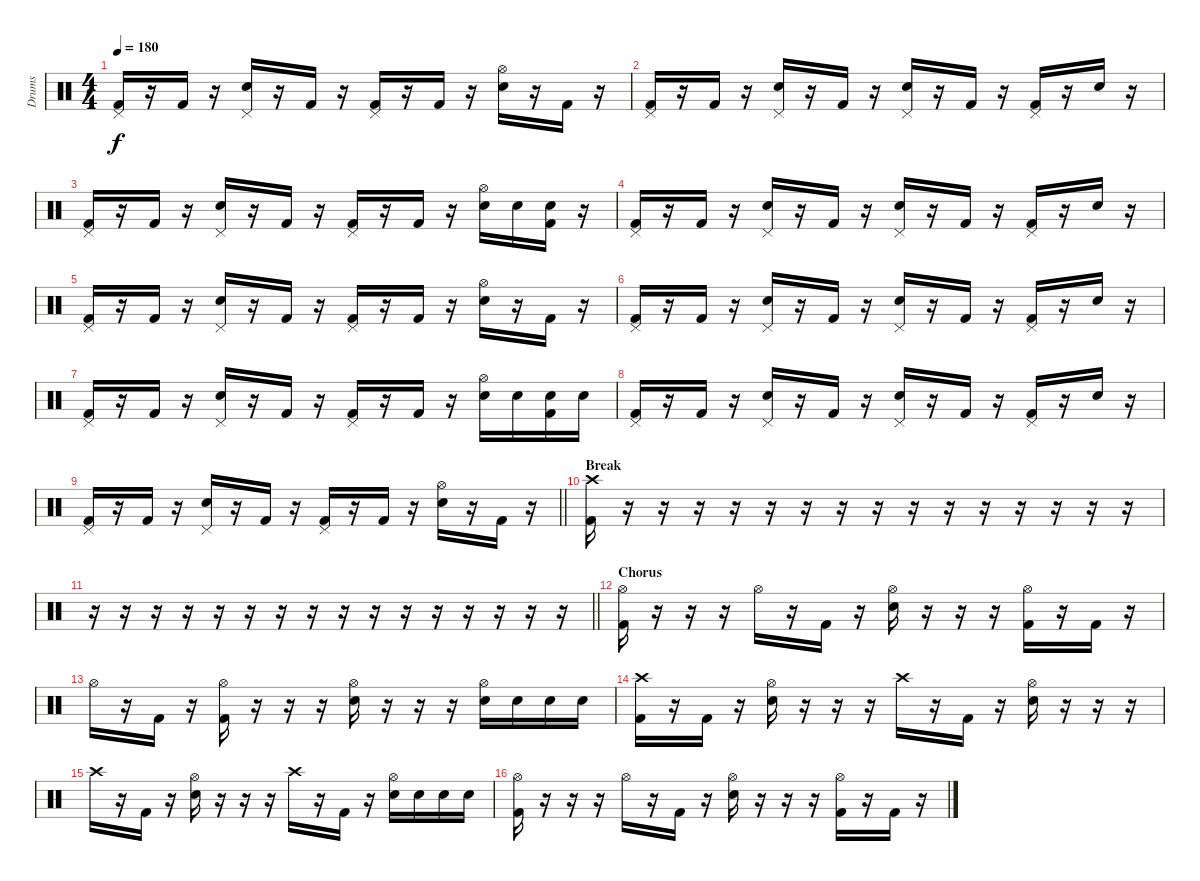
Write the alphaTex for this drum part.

\track ("Drums" "Drums") {instrument percussion}
\staff {score}
\articulation defaults
\ts (4 4)
\tempo 180
\clef neutral
\ks c
("Pedal Hi-Hat (hit)" "Kick (hit) 2").16{dy f} r.16 "Kick (hit) 2".16 r.16 ("Pedal Hi-Hat (hit)" "Electric Snare (hit)").16 r.16 "Kick (hit) 2".16 r.16 ("Pedal Hi-Hat (hit)" "Kick (hit) 2").16 r.16 "Kick (hit) 2".16 r.16 ("Hi-Hat (open)" "Electric Snare (hit)").16 r.16 "Kick (hit) 2".16 r.16 |
("Pedal Hi-Hat (hit)" "Kick (hit) 2").16 r.16 "Kick (hit) 2".16 r.16 ("Pedal Hi-Hat (hit)" "Electric Snare (hit)").16 r.16 "Kick (hit) 2".16 r.16 ("Pedal Hi-Hat (hit)" "Electric Snare (hit)").16 r.16 "Kick (hit) 2".16 r.16 ("Pedal Hi-Hat (hit)" "Kick (hit) 2").16 r.16 "Electric Snare (hit)".16 r.16 |
("Pedal Hi-Hat (hit)" "Kick (hit) 2").16 r.16 "Kick (hit) 2".16 r.16 ("Pedal Hi-Hat (hit)" "Electric Snare (hit)").16 r.16 "Kick (hit) 2".16 r.16 ("Pedal Hi-Hat (hit)" "Kick (hit) 2").16 r.16 "Kick (hit) 2".16 r.16 ("Hi-Hat (open)" "Electric Snare (hit)").16 "Electric Snare (hit)".16 ("Electric Snare (hit)" "Kick (hit) 2").16 r.16 |
("Pedal Hi-Hat (hit)" "Kick (hit) 2").16 r.16 "Kick (hit) 2".16 r.16 ("Pedal Hi-Hat (hit)" "Electric Snare (hit)").16 r.16 "Kick (hit) 2".16 r.16 ("Pedal Hi-Hat (hit)" "Electric Snare (hit)").16 r.16 "Kick (hit) 2".16 r.16 ("Pedal Hi-Hat (hit)" "Kick (hit) 2").16 r.16 "Electric Snare (hit)".16 r.16 |
("Pedal Hi-Hat (hit)" "Kick (hit) 2").16 r.16 "Kick (hit) 2".16 r.16 ("Pedal Hi-Hat (hit)" "Electric Snare (hit)").16 r.16 "Kick (hit) 2".16 r.16 ("Pedal Hi-Hat (hit)" "Kick (hit) 2").16 r.16 "Kick (hit) 2".16 r.16 ("Hi-Hat (open)" "Electric Snare (hit)").16 r.16 "Kick (hit) 2".16 r.16 |
("Pedal Hi-Hat (hit)" "Kick (hit) 2").16 r.16 "Kick (hit) 2".16 r.16 ("Pedal Hi-Hat (hit)" "Electric Snare (hit)").16 r.16 "Kick (hit) 2".16 r.16 ("Pedal Hi-Hat (hit)" "Electric Snare (hit)").16 r.16 "Kick (hit) 2".16 r.16 ("Pedal Hi-Hat (hit)" "Kick (hit) 2").16 r.16 "Electric Snare (hit)".16 r.16 |
("Pedal Hi-Hat (hit)" "Kick (hit) 2").16 r.16 "Kick (hit) 2".16 r.16 ("Pedal Hi-Hat (hit)" "Electric Snare (hit)").16 r.16 "Kick (hit) 2".16 r.16 ("Pedal Hi-Hat (hit)" "Kick (hit) 2").16 r.16 "Kick (hit) 2".16 r.16 ("Hi-Hat (open)" "Electric Snare (hit)").16 "Electric Snare (hit)".16 ("Electric Snare (hit)" "Kick (hit) 2").16 "Electric Snare (hit)".16 |
("Pedal Hi-Hat (hit)" "Kick (hit) 2").16 r.16 "Kick (hit) 2".16 r.16 ("Pedal Hi-Hat (hit)" "Electric Snare (hit)").16 r.16 "Kick (hit) 2".16 r.16 ("Pedal Hi-Hat (hit)" "Electric Snare (hit)").16 r.16 "Kick (hit) 2".16 r.16 ("Pedal Hi-Hat (hit)" "Kick (hit) 2").16 r.16 "Electric Snare (hit)".16 r.16 |
\barLineRight lightlight
("Pedal Hi-Hat (hit)" "Kick (hit) 2").16 r.16 "Kick (hit) 2".16 r.16 ("Pedal Hi-Hat (hit)" "Electric Snare (hit)").16 r.16 "Kick (hit) 2".16 r.16 ("Pedal Hi-Hat (hit)" "Kick (hit) 2").16 r.16 "Kick (hit) 2".16 r.16 ("Hi-Hat (open)" "Electric Snare (hit)").16 r.16 "Kick (hit) 2".16 r.16 |
\section ("" "Break")
("Crash high (hit)" "Kick (hit) 2").16 r.16 r.16 r.16 r.16 r.16 r.16 r.16 r.16 r.16 r.16 r.16 r.16 r.16 r.16 r.16 |
\barLineRight lightlight
r.16 r.16 r.16 r.16 r.16 r.16 r.16 r.16 r.16 r.16 r.16 r.16 r.16 r.16 r.16 r.16 |
\section ("" "Chorus")
("Hi-Hat (open)" "Kick (hit) 2").16 r.16 r.16 r.16 "Hi-Hat (open)".16 r.16 "Kick (hit) 2".16 r.16 ("Hi-Hat (open)" "Electric Snare (hit)").16 r.16 r.16 r.16 ("Hi-Hat (open)" "Kick (hit) 2").16 r.16 "Kick (hit) 2".16 r.16 |
"Hi-Hat (open)".16 r.16 "Kick (hit) 2".16 r.16 ("Hi-Hat (open)" "Kick (hit) 2").16 r.16 r.16 r.16 ("Hi-Hat (open)" "Electric Snare (hit)").16 r.16 r.16 r.16 ("Hi-Hat (open)" "Electric Snare (hit)").16 "Electric Snare (hit)".16 "Electric Snare (hit)".16 "Electric Snare (hit)".16 |
("Crash high (hit)" "Kick (hit) 2").16 r.16 "Kick (hit) 2".16 r.16 ("Hi-Hat (open)" "Electric Snare (hit)").16 r.16 r.16 r.16 "Crash high (hit)".16 r.16 "Kick (hit) 2".16 r.16 ("Hi-Hat (open)" "Electric Snare (hit)").16 r.16 r.16 r.16 |
"Crash high (hit)".16 r.16 "Kick (hit) 2".16 r.16 ("Hi-Hat (open)" "Electric Snare (hit)").16 r.16 r.16 r.16 "Crash high (hit)".16 r.16 "Kick (hit) 2".16 r.16 ("Hi-Hat (open)" "Electric Snare (hit)").16 "Electric Snare (hit)".16 "Electric Snare (hit)".16 "Electric Snare (hit)".16 |
("Hi-Hat (open)" "Kick (hit) 2").16 r.16 r.16 r.16 "Hi-Hat (open)".16 r.16 "Kick (hit) 2".16 r.16 ("Hi-Hat (open)" "Electric Snare (hit)").16 r.16 r.16 r.16 ("Hi-Hat (open)" "Kick (hit) 2").16 r.16 "Kick (hit) 2".16 r.16
